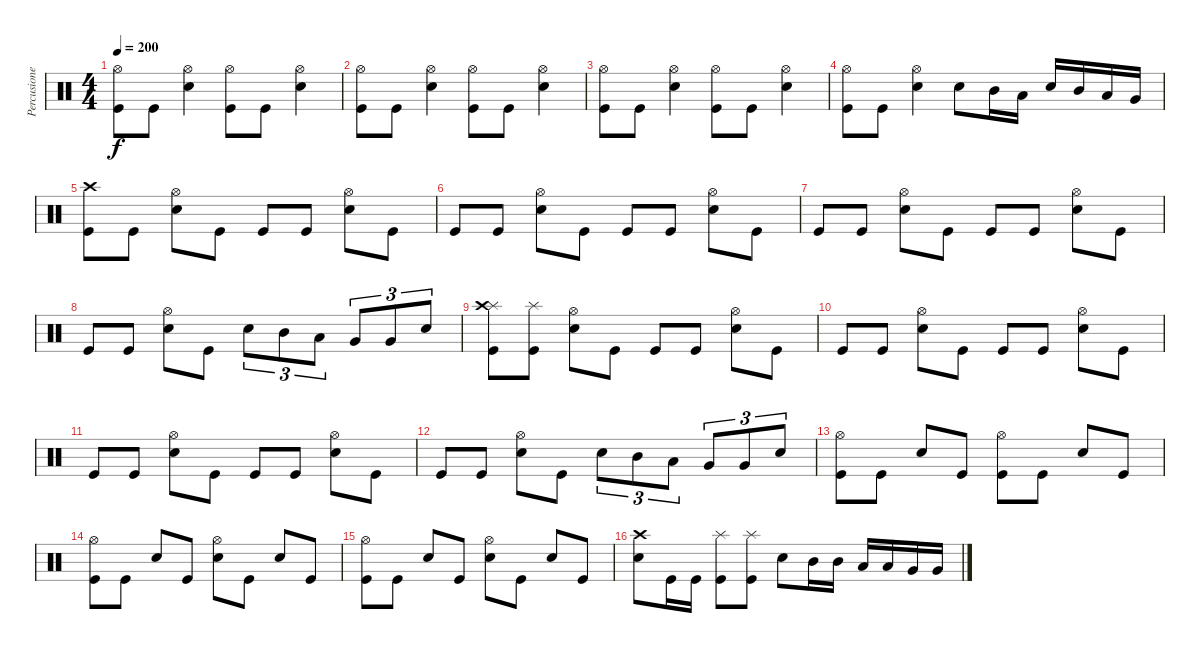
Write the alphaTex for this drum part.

\track ("Percusiones" "Percusione") {instrument percussion}
\staff {score}
\articulation defaults
\ts (4 4)
\tempo 200
\clef neutral
\ks c
("Kick (hit)" "Hi-Hat (open)").8{dy f} "Kick (hit)".8 ("Electric Snare (hit)" "Hi-Hat (open)").4 ("Kick (hit)" "Hi-Hat (open)").8 "Kick (hit)".8 ("Electric Snare (hit)" "Hi-Hat (open)").4 |
("Kick (hit)" "Hi-Hat (open)").8 "Kick (hit)".8 ("Electric Snare (hit)" "Hi-Hat (open)").4 ("Kick (hit)" "Hi-Hat (open)").8 "Kick (hit)".8 ("Electric Snare (hit)" "Hi-Hat (open)").4 |
("Kick (hit)" "Hi-Hat (open)").8 "Kick (hit)".8 ("Electric Snare (hit)" "Hi-Hat (open)").4 ("Kick (hit)" "Hi-Hat (open)").8 "Kick (hit)".8 ("Electric Snare (hit)" "Hi-Hat (open)").4 |
("Kick (hit)" "Hi-Hat (open)").8 "Kick (hit)".8 ("Hi-Hat (open)" "Electric Snare (hit)").4 "Electric Snare (hit)".8 "Mid Tom (hit)".16 "Low Tom (hit)".16 "Electric Snare (hit)".16 "Mid Tom (hit)".16 "Low Tom (hit)".16 "Very Low Tom (hit)".16 |
("Crash high (hit)" "Kick (hit)").8 "Kick (hit)".8 ("Hi-Hat (open)" "Electric Snare (hit)").8 "Kick (hit)".8 "Kick (hit)".8 "Kick (hit)".8 ("Hi-Hat (open)" "Electric Snare (hit)").8 "Kick (hit)".8 |
"Kick (hit)".8 "Kick (hit)".8 ("Hi-Hat (open)" "Electric Snare (hit)").8 "Kick (hit)".8 "Kick (hit)".8 "Kick (hit)".8 ("Hi-Hat (open)" "Electric Snare (hit)").8 "Kick (hit)".8 |
"Kick (hit)".8 "Kick (hit)".8 ("Hi-Hat (open)" "Electric Snare (hit)").8 "Kick (hit)".8 "Kick (hit)".8 "Kick (hit)".8 ("Hi-Hat (open)" "Electric Snare (hit)").8 "Kick (hit)".8 |
"Kick (hit)".8 "Kick (hit)".8 ("Hi-Hat (open)" "Electric Snare (hit)").8 "Kick (hit)".8 "Electric Snare (hit)".8{tu (3 2)} "Mid Tom (hit)".8{tu (3 2)} "Low Tom (hit)".8{tu (3 2)} "Very Low Tom (hit)".8{tu (3 2)} "Very Low Tom (hit)".8{tu (3 2)} "Electric Snare (hit)".8{tu (3 2)} |
("Splash (hit)" "Kick (hit)" "Crash high (hit)").8 ("Splash (hit)" "Kick (hit)").8 ("Hi-Hat (open)" "Electric Snare (hit)").8 "Kick (hit)".8 "Kick (hit)".8 "Kick (hit)".8 ("Hi-Hat (open)" "Electric Snare (hit)").8 "Kick (hit)".8 |
"Kick (hit)".8 "Kick (hit)".8 ("Hi-Hat (open)" "Electric Snare (hit)").8 "Kick (hit)".8 "Kick (hit)".8 "Kick (hit)".8 ("Hi-Hat (open)" "Electric Snare (hit)").8 "Kick (hit)".8 |
"Kick (hit)".8 "Kick (hit)".8 ("Hi-Hat (open)" "Electric Snare (hit)").8 "Kick (hit)".8 "Kick (hit)".8 "Kick (hit)".8 ("Hi-Hat (open)" "Electric Snare (hit)").8 "Kick (hit)".8 |
"Kick (hit)".8 "Kick (hit)".8 ("Hi-Hat (open)" "Electric Snare (hit)").8 "Kick (hit)".8 "Electric Snare (hit)".8{tu (3 2)} "Mid Tom (hit)".8{tu (3 2)} "Low Tom (hit)".8{tu (3 2)} "Very Low Tom (hit)".8{tu (3 2)} "Very Low Tom (hit)".8{tu (3 2)} "Electric Snare (hit)".8{tu (3 2)} |
("Hi-Hat (open)" "Kick (hit)").8 "Kick (hit)".8 "Electric Snare (hit)".8 "Kick (hit)".8 ("Hi-Hat (open)" "Kick (hit)").8 "Kick (hit)".8 "Electric Snare (hit)".8 "Kick (hit)".8 |
("Hi-Hat (open)" "Kick (hit)").8 "Kick (hit)".8 "Electric Snare (hit)".8 "Kick (hit)".8 ("Hi-Hat (open)" "Electric Snare (hit)").8 "Kick (hit)".8 "Electric Snare (hit)".8 "Kick (hit)".8 |
("Hi-Hat (open)" "Kick (hit)").8 "Kick (hit)".8 "Electric Snare (hit)".8 "Kick (hit)".8 ("Electric Snare (hit)" "Hi-Hat (open)").8 "Kick (hit)".8 "Electric Snare (hit)".8 "Kick (hit)".8 |
("Crash high (hit)" "Electric Snare (hit)").8 "Kick (hit)".16 "Kick (hit)".16 ("Splash (hit)" "Kick (hit)").8 ("Splash (hit)" "Kick (hit)").8 "Electric Snare (hit)".8 "Mid Tom (hit)".16 "Mid Tom (hit)".16 "Low Tom (hit)".16 "Low Tom (hit)".16 "Very Low Tom (hit)".16 "Very Low Tom (hit)".16
